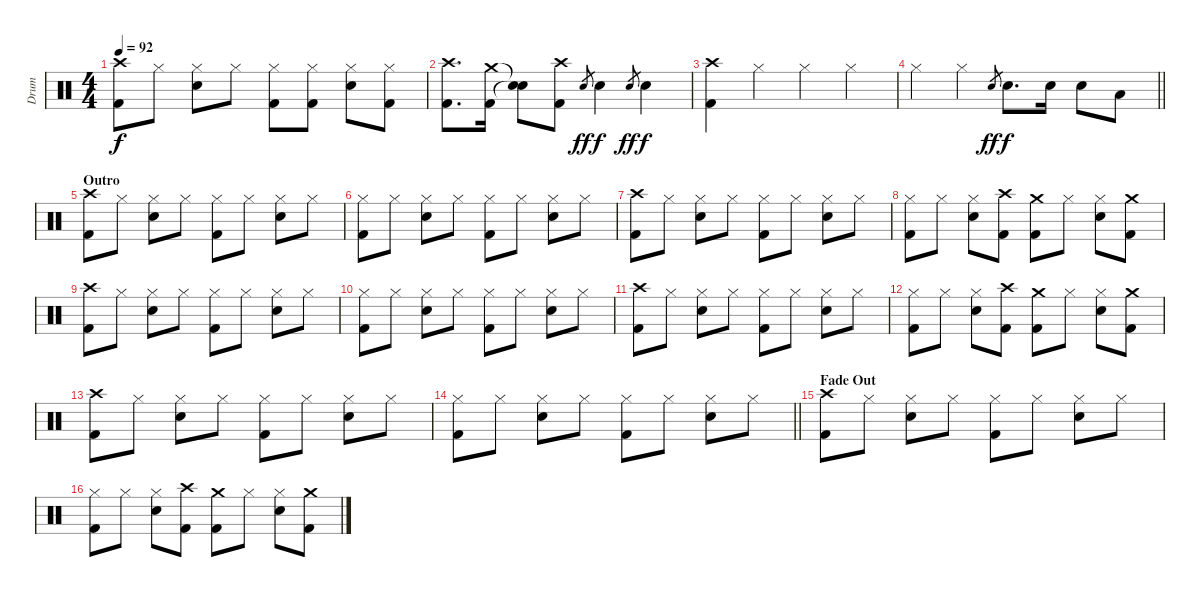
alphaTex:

\track ("Drum" "Drum") {instrument percussion}
\staff {score}
\articulation defaults
\ts (4 4)
\tempo 92
\clef neutral
\ks c
("Crash high (hit)" "Kick (hit) 2").8{dy f} "Hi-Hat (closed)".8 ("Hi-Hat (closed)" "Snare (hit) 2").8 "Hi-Hat (closed)".8 ("Hi-Hat (closed)" "Kick (hit) 2").8 ("Hi-Hat (closed)" "Kick (hit) 2").8 ("Hi-Hat (closed)" "Snare (hit) 2").8 ("Hi-Hat (closed)" "Kick (hit) 2").8 |
("Crash high (hit)" "Kick (hit) 2").8{d} ("Crash medium (hit)" "Kick (hit) 2").16 ("Snare (hit)"{t} "Snare (hit)"{t}).8 ("Crash high (hit)" "Kick (hit) 2").8 "Snare (hit) 2".8{gr dy ff} "Snare (hit) 2".4{dy f} "Snare (hit) 2".8{gr dy ff} "Snare (hit) 2".4{dy f} |
("Crash high (hit)" "Kick (hit) 2").4 "Hi-Hat (closed)".4 "Hi-Hat (closed)".4 "Hi-Hat (closed)".4 |
\barLineRight lightlight "Hi-Hat (closed)".4 "Hi-Hat (closed)".4 "Snare (hit) 2".8{gr dy ff} "Snare (hit) 2".8{d dy f} "Snare (hit) 2".16 "Snare (hit) 2".8 "Low Tom (hit)".8
|
\section ("" "Outro")
("Crash high (hit)" "Kick (hit) 2").8 "Hi-Hat (closed)".8 ("Hi-Hat (closed)" "Snare (hit) 2").8 "Hi-Hat (closed)".8 ("Hi-Hat (closed)" "Kick (hit) 2").8 "Hi-Hat (closed)".8 ("Hi-Hat (closed)" "Snare (hit) 2").8 "Hi-Hat (closed)".8 |
("Hi-Hat (closed)" "Kick (hit) 2").8 "Hi-Hat (closed)".8 ("Hi-Hat (closed)" "Snare (hit) 2").8 "Hi-Hat (closed)".8 ("Hi-Hat (closed)" "Kick (hit) 2").8 "Hi-Hat (closed)".8 ("Hi-Hat (closed)" "Snare (hit) 2").8 "Hi-Hat (closed)".8 |
("Crash high (hit)" "Kick (hit) 2").8 "Hi-Hat (closed)".8 ("Hi-Hat (closed)" "Snare (hit) 2").8 "Hi-Hat (closed)".8 ("Hi-Hat (closed)" "Kick (hit) 2").8 "Hi-Hat (closed)".8 ("Hi-Hat (closed)" "Snare (hit) 2").8 "Hi-Hat (closed)".8 |
("Hi-Hat (closed)" "Kick (hit) 2").8 "Hi-Hat (closed)".8 ("Hi-Hat (closed)" "Snare (hit) 2").8 ("Crash high (hit)" "Kick (hit) 2").8 ("Crash medium (hit)" "Kick (hit) 2").8 "Hi-Hat (closed)".8 ("Hi-Hat (closed)" "Snare (hit) 2").8 ("Crash medium (hit)" "Kick (hit) 2").8 |
("Crash high (hit)" "Kick (hit) 2").8 "Hi-Hat (closed)".8 ("Hi-Hat (closed)" "Snare (hit) 2").8 "Hi-Hat (closed)".8 ("Hi-Hat (closed)" "Kick (hit) 2").8 "Hi-Hat (closed)".8 ("Hi-Hat (closed)" "Snare (hit) 2").8 "Hi-Hat (closed)".8 |
("Hi-Hat (closed)" "Kick (hit) 2").8 "Hi-Hat (closed)".8 ("Hi-Hat (closed)" "Snare (hit) 2").8 "Hi-Hat (closed)".8 ("Hi-Hat (closed)" "Kick (hit) 2").8 "Hi-Hat (closed)".8 ("Hi-Hat (closed)" "Snare (hit) 2").8 "Hi-Hat (closed)".8 |
("Crash high (hit)" "Kick (hit) 2").8 "Hi-Hat (closed)".8 ("Hi-Hat (closed)" "Snare (hit) 2").8 "Hi-Hat (closed)".8 ("Hi-Hat (closed)" "Kick (hit) 2").8 "Hi-Hat (closed)".8 ("Hi-Hat (closed)" "Snare (hit) 2").8 "Hi-Hat (closed)".8 |
("Hi-Hat (closed)" "Kick (hit) 2").8 "Hi-Hat (closed)".8 ("Hi-Hat (closed)" "Snare (hit) 2").8 ("Crash high (hit)" "Kick (hit) 2").8 ("Crash medium (hit)" "Kick (hit) 2").8 "Hi-Hat (closed)".8 ("Hi-Hat (closed)" "Snare (hit) 2").8 ("Crash medium (hit)" "Kick (hit) 2").8 |
("Crash high (hit)" "Kick (hit) 2").8 "Hi-Hat (closed)".8 ("Hi-Hat (closed)" "Snare (hit) 2").8 "Hi-Hat (closed)".8 ("Hi-Hat (closed)" "Kick (hit) 2").8 "Hi-Hat (closed)".8 ("Hi-Hat (closed)" "Snare (hit) 2").8 "Hi-Hat (closed)".8 |
\barLineRight lightlight
("Hi-Hat (closed)" "Kick (hit) 2").8 "Hi-Hat (closed)".8 ("Hi-Hat (closed)" "Snare (hit) 2").8 "Hi-Hat (closed)".8 ("Hi-Hat (closed)" "Kick (hit) 2").8 "Hi-Hat (closed)".8 ("Hi-Hat (closed)" "Snare (hit) 2").8 "Hi-Hat (closed)".8 |
\section ("" "Fade Out")
("Crash high (hit)" "Kick (hit) 2").8{volume 8} "Hi-Hat (closed)".8 ("Hi-Hat (closed)" "Snare (hit) 2").8 "Hi-Hat (closed)".8 ("Hi-Hat (closed)" "Kick (hit) 2").8 "Hi-Hat (closed)".8 ("Hi-Hat (closed)" "Snare (hit) 2").8 "Hi-Hat (closed)".8 |
("Hi-Hat (closed)" "Kick (hit) 2").8 "Hi-Hat (closed)".8 ("Hi-Hat (closed)" "Snare (hit) 2").8 ("Crash high (hit)" "Kick (hit) 2").8 ("Crash medium (hit)" "Kick (hit) 2").8 "Hi-Hat (closed)".8 ("Hi-Hat (closed)" "Snare (hit) 2").8 ("Crash medium (hit)" "Kick (hit) 2").8
